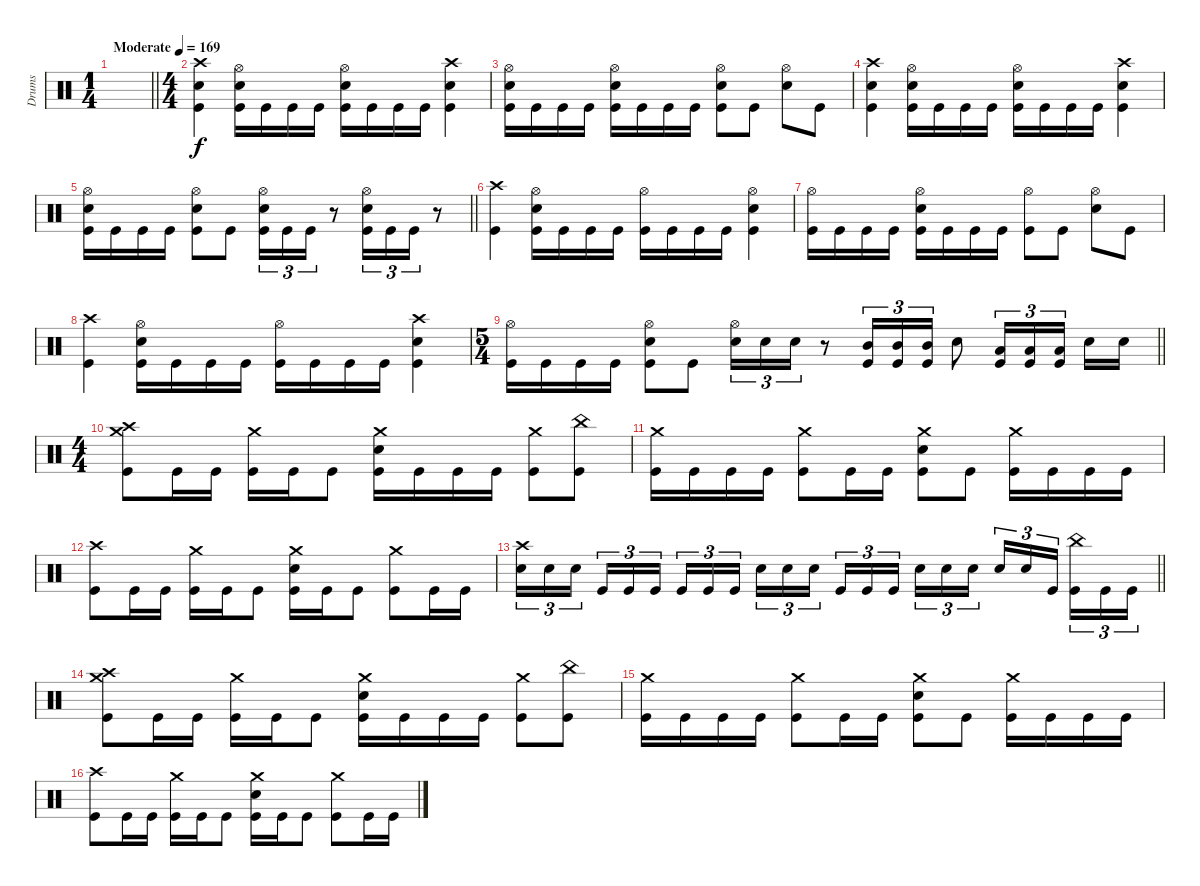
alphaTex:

\track ("Drums" "Drums") {instrument percussion}
\staff
\articulation defaults
\ts (1 4)
\tempo (169 "Moderate")
\clef neutral
\barLineRight lightlight
\ks c
|
\ts (4 4)
("Crash high (hit)" "Electric Snare (hit)" "Kick (hit)").4 ("Hi-Hat (open)" "Electric Snare (hit)" "Kick (hit)").16 "Kick (hit)".16 "Kick (hit)".16 "Kick (hit)".16 ("Hi-Hat (open)" "Electric Snare (hit)" "Kick (hit)").16 "Kick (hit)".16 "Kick (hit)".16 "Kick (hit)".16 ("Crash high (hit)" "Electric Snare (hit)" "Kick (hit)").4 |
("Hi-Hat (open)" "Electric Snare (hit)" "Kick (hit)").16 "Kick (hit)".16 "Kick (hit)".16 "Kick (hit)".16 ("Hi-Hat (open)" "Electric Snare (hit)" "Kick (hit)").16 "Kick (hit)".16 "Kick (hit)".16 "Kick (hit)".16 ("Hi-Hat (open)" "Electric Snare (hit)" "Kick (hit)").8 "Kick (hit)".8 ("Hi-Hat (open)" "Electric Snare (hit)").8 "Kick (hit)".8 |
("Crash high (hit)" "Electric Snare (hit)" "Kick (hit)").4 ("Hi-Hat (open)" "Electric Snare (hit)" "Kick (hit)").16 "Kick (hit)".16 "Kick (hit)".16 "Kick (hit)".16 ("Hi-Hat (open)" "Electric Snare (hit)" "Kick (hit)").16 "Kick (hit)".16 "Kick (hit)".16 "Kick (hit)".16 ("Crash high (hit)" "Electric Snare (hit)" "Kick (hit)").4 |
\barLineRight lightlight
("Hi-Hat (open)" "Electric Snare (hit)" "Kick (hit)").16 "Kick (hit)".16 "Kick (hit)".16 "Kick (hit)".16 ("Hi-Hat (open)" "Electric Snare (hit)" "Kick (hit)").8 "Kick (hit)".8 ("Hi-Hat (open)" "Electric Snare (hit)" "Kick (hit)").16{tu (3 2)} "Kick (hit)".16{tu (3 2)} "Kick (hit)".16{tu (3 2)} r.8 ("Hi-Hat (open)" "Electric Snare (hit)" "Kick (hit)").16{tu (3 2)} "Kick (hit)".16{tu (3 2)} "Kick (hit)".16{tu (3 2)} r.8 |
("Crash high (hit)" "Kick (hit)").4 ("Hi-Hat (open)" "Electric Snare (hit)" "Kick (hit)").16 "Kick (hit)".16 "Kick (hit)".16 "Kick (hit)".16 ("Hi-Hat (open)" "Kick (hit)").16 "Kick (hit)".16 "Kick (hit)".16 "Kick (hit)".16 ("Hi-Hat (open)" "Electric Snare (hit)" "Kick (hit)").4 |
("Hi-Hat (open)" "Kick (hit)").16 "Kick (hit)".16 "Kick (hit)".16 "Kick (hit)".16 ("Hi-Hat (open)" "Electric Snare (hit)" "Kick (hit)").16 "Kick (hit)".16 "Kick (hit)".16 "Kick (hit)".16 ("Hi-Hat (open)" "Kick (hit)").8 "Kick (hit)".8 ("Hi-Hat (open)" "Electric Snare (hit)").8 "Kick (hit)".8 |
("Crash high (hit)" "Kick (hit)").4 ("Hi-Hat (open)" "Electric Snare (hit)" "Kick (hit)").16 "Kick (hit)".16 "Kick (hit)".16 "Kick (hit)".16 ("Hi-Hat (open)" "Kick (hit)").16 "Kick (hit)".16 "Kick (hit)".16 "Kick (hit)".16 ("Crash high (hit)" "Electric Snare (hit)" "Kick (hit)").4 |
\ts (5 4)
\barLineRight lightlight
("Hi-Hat (open)" "Kick (hit)").16 "Kick (hit)".16 "Kick (hit)".16 "Kick (hit)".16 ("Hi-Hat (open)" "Electric Snare (hit)" "Kick (hit)").8 "Kick (hit)".8 ("Hi-Hat (open)" "Electric Snare (hit)").16{tu (3 2)} "Electric Snare (hit)".16{tu (3 2)} "Electric Snare (hit)".16{tu (3 2)} r.8 ("Mid Tom (hit)" "Kick (hit)").16{tu (3 2)} ("Mid Tom (hit)" "Kick (hit)").16{tu (3 2)} ("Mid Tom (hit)" "Kick (hit)").16{tu (3 2)} "Electric Snare (hit)".8 ("Low Tom (hit)" "Kick (hit)").16{tu (3 2)} ("Low Tom (hit)" "Kick (hit)").16{tu (3 2)} ("Low Tom (hit)" "Kick (hit)").16{tu (3 2) beam splitsecondary} "Electric Snare (hit)".16 "Electric Snare (hit)".16 |
\ts (4 4)
("Crash high (hit)" "Crash medium (hit)" "Kick (hit)").8 "Kick (hit)".16 "Kick (hit)".16 ("Crash medium (hit)" "Kick (hit)").16 "Kick (hit)".16 "Kick (hit)".8 ("Crash medium (hit)" "Electric Snare (hit)" "Kick (hit)").16 "Kick (hit)".16 "Kick (hit)".16 "Kick (hit)".16 ("Crash medium (hit)" "Kick (hit)").8 ("China (hit)" "Kick (hit)").8 |
("Crash medium (hit)" "Kick (hit)").16 "Kick (hit)".16 "Kick (hit)".16 "Kick (hit)".16 ("Crash medium (hit)" "Kick (hit)").8 "Kick (hit)".16 "Kick (hit)".16 ("Crash medium (hit)" "Electric Snare (hit)" "Kick (hit)").8 "Kick (hit)".8 ("Crash medium (hit)" "Kick (hit)").16 "Kick (hit)".16 "Kick (hit)".16 "Kick (hit)".16 |
("Crash high (hit)" "Kick (hit)").8 "Kick (hit)".16 "Kick (hit)".16 ("Crash medium (hit)" "Kick (hit)").16 "Kick (hit)".16 "Kick (hit)".8 ("Crash medium (hit)" "Electric Snare (hit)" "Kick (hit)").16 "Kick (hit)".16 "Kick (hit)".8 ("Crash medium (hit)" "Kick (hit)").8 "Kick (hit)".16 "Kick (hit)".16 |
\barLineRight lightlight
("Crash high (hit)" "Electric Snare (hit)").16{tu (3 2)} "Electric Snare (hit)".16{tu (3 2)} "Electric Snare (hit)".16{tu (3 2) beam splitsecondary} "Kick (hit)".16{tu (3 2)} "Kick (hit)".16{tu (3 2)} "Kick (hit)".16{tu (3 2)} "Kick (hit)".16{tu (3 2)} "Kick (hit)".16{tu (3 2)} "Kick (hit)".16{tu (3 2) beam splitsecondary} "Electric Snare (hit)".16{tu (3 2)} "Electric Snare (hit)".16{tu (3 2)} "Electric Snare (hit)".16{tu (3 2)} "Kick (hit)".16{tu (3 2)} "Kick (hit)".16{tu (3 2)} "Kick (hit)".16{tu (3 2) beam splitsecondary} "Electric Snare (hit)".16{tu (3 2)} "Electric Snare (hit)".16{tu (3 2)} "Electric Snare (hit)".16{tu (3 2)} "Electric Snare (hit)".16{tu (3 2)} "Electric Snare (hit)".16{tu (3 2)} "Kick (hit)".16{tu (3 2) beam splitsecondary} ("China (hit)" "Kick (hit)").16{tu (3 2)} "Kick (hit)".16{tu (3 2)} "Kick (hit)".16{tu (3 2)} |
("Crash high (hit)" "Crash medium (hit)" "Kick (hit)").8 "Kick (hit)".16 "Kick (hit)".16 ("Crash medium (hit)" "Kick (hit)").16 "Kick (hit)".16 "Kick (hit)".8 ("Crash medium (hit)" "Electric Snare (hit)" "Kick (hit)").16 "Kick (hit)".16 "Kick (hit)".16 "Kick (hit)".16 ("Crash medium (hit)" "Kick (hit)").8 ("China (hit)" "Kick (hit)").8 |
("Crash medium (hit)" "Kick (hit)").16 "Kick (hit)".16 "Kick (hit)".16 "Kick (hit)".16 ("Crash medium (hit)" "Kick (hit)").8 "Kick (hit)".16 "Kick (hit)".16 ("Crash medium (hit)" "Electric Snare (hit)" "Kick (hit)").8 "Kick (hit)".8 ("Crash medium (hit)" "Kick (hit)").16 "Kick (hit)".16 "Kick (hit)".16 "Kick (hit)".16 |
("Crash high (hit)" "Kick (hit)").8 "Kick (hit)".16 "Kick (hit)".16 ("Crash medium (hit)" "Kick (hit)").16 "Kick (hit)".16 "Kick (hit)".8 ("Crash medium (hit)" "Electric Snare (hit)" "Kick (hit)").16 "Kick (hit)".16 "Kick (hit)".8 ("Crash medium (hit)" "Kick (hit)").8 "Kick (hit)".16 "Kick (hit)".16
